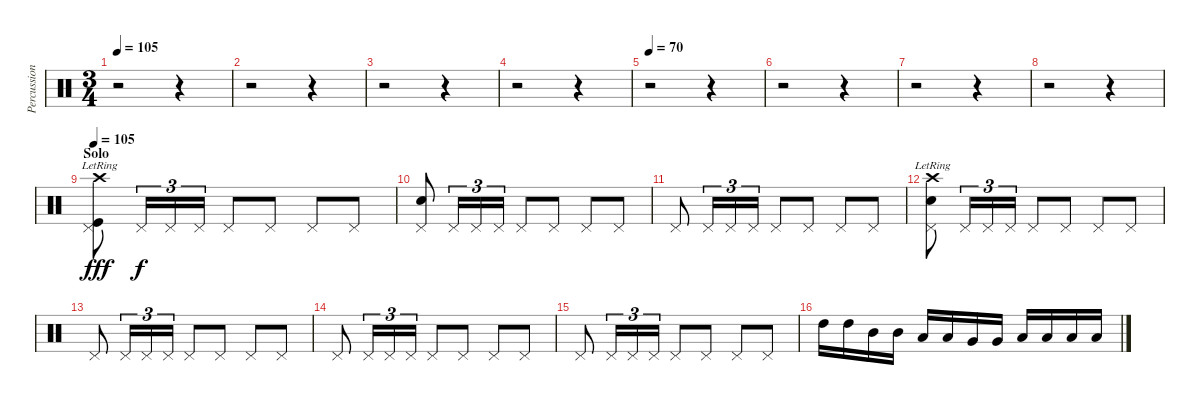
\track ("Percussion" "Percussion") {instrument percussion}
\staff {score}
\articulation defaults
\ts (3 4)
\tempo 105
\clef neutral
\ks c
r.2{dy f} r.4 |
r.2 r.4 |
r.2 r.4 |
r.2 r.4 |
\tempo 70
r.2 r.4 |
r.2 r.4 |
r.2 r.4 |
r.2 r.4 |
\section ("" "Solo")
\tempo 105
("Crash high (hit)"{lr} "Kick (hit)" "Pedal Hi-Hat (hit)").8{dy fff} "Pedal Hi-Hat (hit)".16{tu (3 2) dy f} "Pedal Hi-Hat (hit)".16{tu (3 2)} "Pedal Hi-Hat (hit)".16{tu (3 2)} "Pedal Hi-Hat (hit)".8 "Pedal Hi-Hat (hit)".8 "Pedal Hi-Hat (hit)".8 "Pedal Hi-Hat (hit)".8 |
("Snare (hit) 2" "Pedal Hi-Hat (hit)").8 "Pedal Hi-Hat (hit)".16{tu (3 2)} "Pedal Hi-Hat (hit)".16{tu (3 2)} "Pedal Hi-Hat (hit)".16{tu (3 2)} "Pedal Hi-Hat (hit)".8 "Pedal Hi-Hat (hit)".8 "Pedal Hi-Hat (hit)".8 "Pedal Hi-Hat (hit)".8 |
"Pedal Hi-Hat (hit)".8 "Pedal Hi-Hat (hit)".16{tu (3 2)} "Pedal Hi-Hat (hit)".16{tu (3 2)} "Pedal Hi-Hat (hit)".16{tu (3 2)} "Pedal Hi-Hat (hit)".8 "Pedal Hi-Hat (hit)".8 "Pedal Hi-Hat (hit)".8 "Pedal Hi-Hat (hit)".8 |
("Crash high (hit)"{lr} "Snare (hit) 2" "Pedal Hi-Hat (hit)").8 "Pedal Hi-Hat (hit)".16{tu (3 2)} "Pedal Hi-Hat (hit)".16{tu (3 2)} "Pedal Hi-Hat (hit)".16{tu (3 2)} "Pedal Hi-Hat (hit)".8 "Pedal Hi-Hat (hit)".8 "Pedal Hi-Hat (hit)".8 "Pedal Hi-Hat (hit)".8 |
"Pedal Hi-Hat (hit)".8 "Pedal Hi-Hat (hit)".16{tu (3 2)} "Pedal Hi-Hat (hit)".16{tu (3 2)} "Pedal Hi-Hat (hit)".16{tu (3 2)} "Pedal Hi-Hat (hit)".8 "Pedal Hi-Hat (hit)".8 "Pedal Hi-Hat (hit)".8 "Pedal Hi-Hat (hit)".8 |
"Pedal Hi-Hat (hit)".8 "Pedal Hi-Hat (hit)".16{tu (3 2)} "Pedal Hi-Hat (hit)".16{tu (3 2)} "Pedal Hi-Hat (hit)".16{tu (3 2)} "Pedal Hi-Hat (hit)".8 "Pedal Hi-Hat (hit)".8 "Pedal Hi-Hat (hit)".8 "Pedal Hi-Hat (hit)".8 |
"Pedal Hi-Hat (hit)".8 "Pedal Hi-Hat (hit)".16{tu (3 2)} "Pedal Hi-Hat (hit)".16{tu (3 2)} "Pedal Hi-Hat (hit)".16{tu (3 2)} "Pedal Hi-Hat (hit)".8 "Pedal Hi-Hat (hit)".8 "Pedal Hi-Hat (hit)".8 "Pedal Hi-Hat (hit)".8 |
"High Tom (hit)".16 "High Tom (hit)".16 "Mid Tom (hit)".16 "Mid Tom (hit)".16 "Low Tom (hit)".16 "Low Tom (hit)".16 "Very Low Tom (hit)".16 "Very Low Tom (hit)".16 "Low Floor Tom (hit)".16 "Low Floor Tom (hit)".16 "Low Floor Tom (hit)".16 "Low Floor Tom (hit)".16
